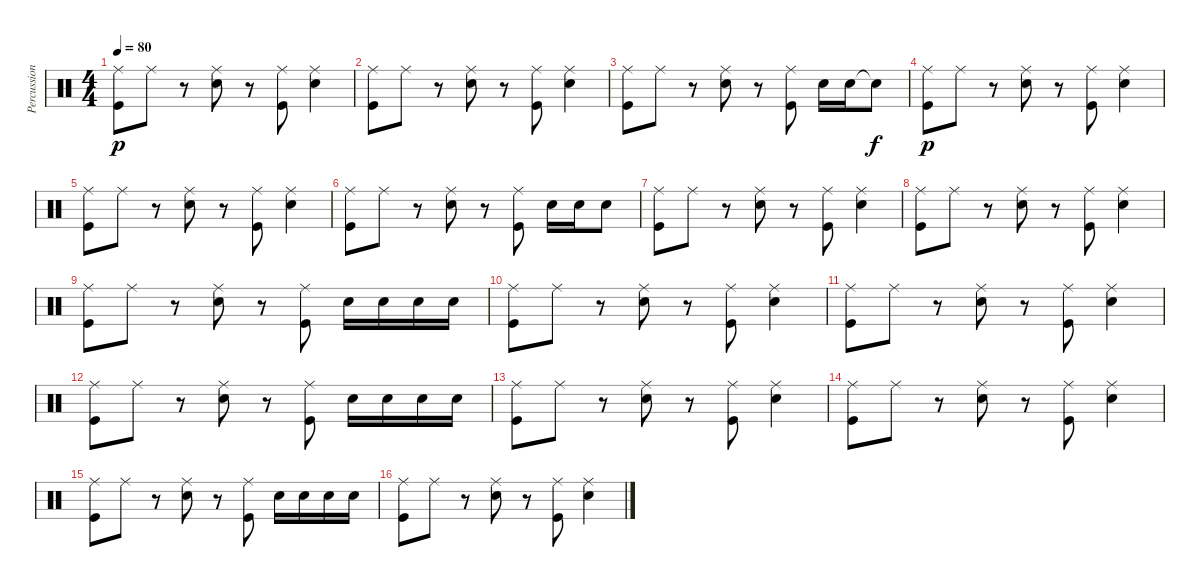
\track ("Percussion" "Percussion") {instrument percussion}
\staff {score}
\articulation defaults
\ts (4 4)
\tempo 80
\clef neutral
\ks c
("Ride (middle)" "Kick (hit)").8{dy p} "Ride (middle)".8 r.8 ("Ride (middle)" "Electric Snare (hit)").8 r.8 ("Ride (middle)" "Kick (hit)").8 ("Ride (middle)" "Electric Snare (hit)").4 |
("Ride (middle)" "Kick (hit)").8 "Ride (middle)".8 r.8 ("Ride (middle)" "Electric Snare (hit)").8 r.8 ("Ride (middle)" "Kick (hit)").8 ("Ride (middle)" "Electric Snare (hit)").4 |
("Ride (middle)" "Kick (hit)").8 "Ride (middle)".8 r.8 ("Ride (middle)" "Electric Snare (hit)").8 r.8 ("Ride (middle)" "Kick (hit)").8 "Electric Snare (hit)".16 "Electric Snare (hit)".16 "Snare (hit)"{t}.8{dy f} |
("Ride (middle)" "Kick (hit)").8{dy p} "Ride (middle)".8 r.8 ("Ride (middle)" "Electric Snare (hit)").8 r.8 ("Ride (middle)" "Kick (hit)").8 ("Ride (middle)" "Electric Snare (hit)").4 |
("Ride (middle)" "Kick (hit)").8 "Ride (middle)".8 r.8 ("Ride (middle)" "Electric Snare (hit)").8 r.8 ("Ride (middle)" "Kick (hit)").8 ("Ride (middle)" "Electric Snare (hit)").4 |
("Ride (middle)" "Kick (hit)").8 "Ride (middle)".8 r.8 ("Ride (middle)" "Electric Snare (hit)").8 r.8 ("Ride (middle)" "Kick (hit)").8 "Electric Snare (hit)".16 "Electric Snare (hit)".16 "Electric Snare (hit)".8 |
("Ride (middle)" "Kick (hit)").8 "Ride (middle)".8 r.8 ("Ride (middle)" "Electric Snare (hit)").8 r.8 ("Ride (middle)" "Kick (hit)").8 ("Ride (middle)" "Electric Snare (hit)").4 |
("Ride (middle)" "Kick (hit)").8 "Ride (middle)".8 r.8 ("Ride (middle)" "Electric Snare (hit)").8 r.8 ("Ride (middle)" "Kick (hit)").8 ("Ride (middle)" "Electric Snare (hit)").4 |
("Ride (middle)" "Kick (hit)").8 "Ride (middle)".8 r.8 ("Ride (middle)" "Electric Snare (hit)").8 r.8 ("Ride (middle)" "Kick (hit)").8 "Electric Snare (hit)".16 "Electric Snare (hit)".16 "Electric Snare (hit)".16 "Electric Snare (hit)".16 |
("Ride (middle)" "Kick (hit)").8 "Ride (middle)".8 r.8 ("Ride (middle)" "Electric Snare (hit)").8 r.8 ("Ride (middle)" "Kick (hit)").8 ("Ride (middle)" "Electric Snare (hit)").4 |
("Ride (middle)" "Kick (hit)").8 "Ride (middle)".8 r.8 ("Ride (middle)" "Electric Snare (hit)").8 r.8 ("Ride (middle)" "Kick (hit)").8 ("Ride (middle)" "Electric Snare (hit)").4 |
("Ride (middle)" "Kick (hit)").8 "Ride (middle)".8 r.8 ("Ride (middle)" "Electric Snare (hit)").8 r.8 ("Ride (middle)" "Kick (hit)").8 "Electric Snare (hit)".16 "Electric Snare (hit)".16 "Electric Snare (hit)".16 "Electric Snare (hit)".16 |
("Ride (middle)" "Kick (hit)").8 "Ride (middle)".8 r.8 ("Ride (middle)" "Electric Snare (hit)").8 r.8 ("Ride (middle)" "Kick (hit)").8 ("Ride (middle)" "Electric Snare (hit)").4 |
("Ride (middle)" "Kick (hit)").8 "Ride (middle)".8 r.8 ("Ride (middle)" "Electric Snare (hit)").8 r.8 ("Ride (middle)" "Kick (hit)").8 ("Ride (middle)" "Electric Snare (hit)").4 |
("Ride (middle)" "Kick (hit)").8 "Ride (middle)".8 r.8 ("Ride (middle)" "Electric Snare (hit)").8 r.8 ("Ride (middle)" "Kick (hit)").8 "Electric Snare (hit)".16 "Electric Snare (hit)".16 "Electric Snare (hit)".16 "Electric Snare (hit)".16 |
("Ride (middle)" "Kick (hit)").8 "Ride (middle)".8 r.8 ("Ride (middle)" "Electric Snare (hit)").8 r.8 ("Ride (middle)" "Kick (hit)").8 ("Ride (middle)" "Electric Snare (hit)").4
